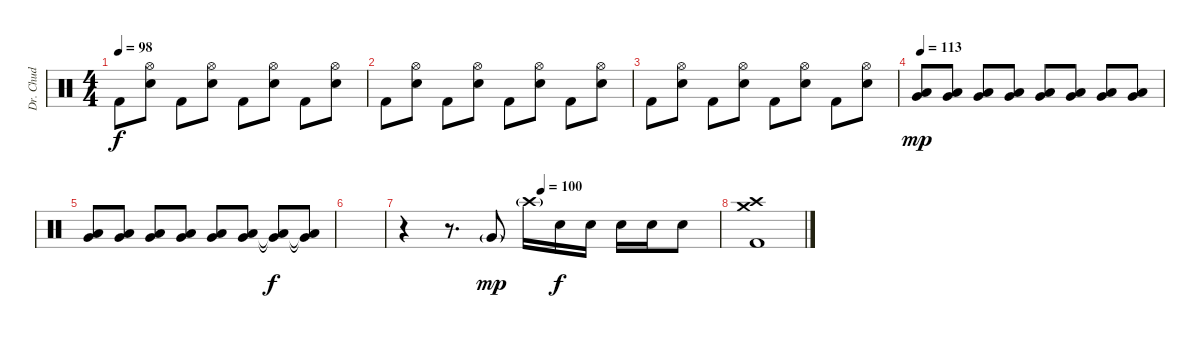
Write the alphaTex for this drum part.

\track ("Dr. Chud" "Dr. Chud") {instrument percussion}
\staff {score}
\articulation defaults
\ts (4 4)
\tempo 98
\clef neutral
\ks c "Kick (hit) 2".8{dy f}
("Hi-Hat (open)" "Snare (hit) 2").8 "Kick (hit) 2".8 ("Hi-Hat (open)" "Snare (hit) 2").8 "Kick (hit) 2".8 ("Hi-Hat (open)" "Snare (hit) 2").8 "Kick (hit) 2".8 ("Hi-Hat (open)" "Snare (hit) 2").8 |
"Kick (hit) 2".8 ("Hi-Hat (open)" "Snare (hit) 2").8 "Kick (hit) 2".8 ("Hi-Hat (open)" "Snare (hit) 2").8 "Kick (hit) 2".8 ("Hi-Hat (open)" "Snare (hit) 2").8 "Kick (hit) 2".8 ("Hi-Hat (open)" "Snare (hit) 2").8 |
"Kick (hit) 2".8 ("Hi-Hat (open)" "Snare (hit) 2").8 "Kick (hit) 2".8 ("Hi-Hat (open)" "Snare (hit) 2").8 "Kick (hit) 2".8 ("Hi-Hat (open)" "Snare (hit) 2").8 "Kick (hit) 2".8 ("Hi-Hat (open)" "Snare (hit) 2").8 |
\tempo 113
("Very Low Tom (hit)" "Low Tom (hit)").8{dy mp} ("Very Low Tom (hit)" "Low Tom (hit)").8 ("Very Low Tom (hit)" "Low Tom (hit)").8 ("Very Low Tom (hit)" "Low Tom (hit)").8 ("Very Low Tom (hit)" "Low Tom (hit)").8 ("Very Low Tom (hit)" "Low Tom (hit)").8 ("Very Low Tom (hit)" "Low Tom (hit)").8 ("Very Low Tom (hit)" "Low Tom (hit)").8 |
("Very Low Tom (hit)" "Low Tom (hit)").8 ("Very Low Tom (hit)" "Low Tom (hit)").8 ("Very Low Tom (hit)" "Low Tom (hit)").8 ("Very Low Tom (hit)" "Low Tom (hit)").8 ("Very Low Tom (hit)" "Low Tom (hit)").8 ("Very Low Tom (hit)" "Low Tom (hit)").8 ("Very Low Tom (hit)"{t} "Low Tom (hit)"{t}).8{dy f} ("Very Low Tom (hit)"{t} "Low Tom (hit)"{t}).8 |
|
\tempo (100 0.4375)
r.4 r.8{d} "Very Low Tom (hit)"{g}.8{dy mp} "Crash high (hit)"{g}.16 "Snare (hit) 2".16{dy f} "Snare (hit) 2".16 "Snare (hit) 2".16 "Snare (hit) 2".16 "Snare (hit) 2".8 |
("Kick (hit) 2" "Crash high (hit)" "Crash medium (hit)").1
